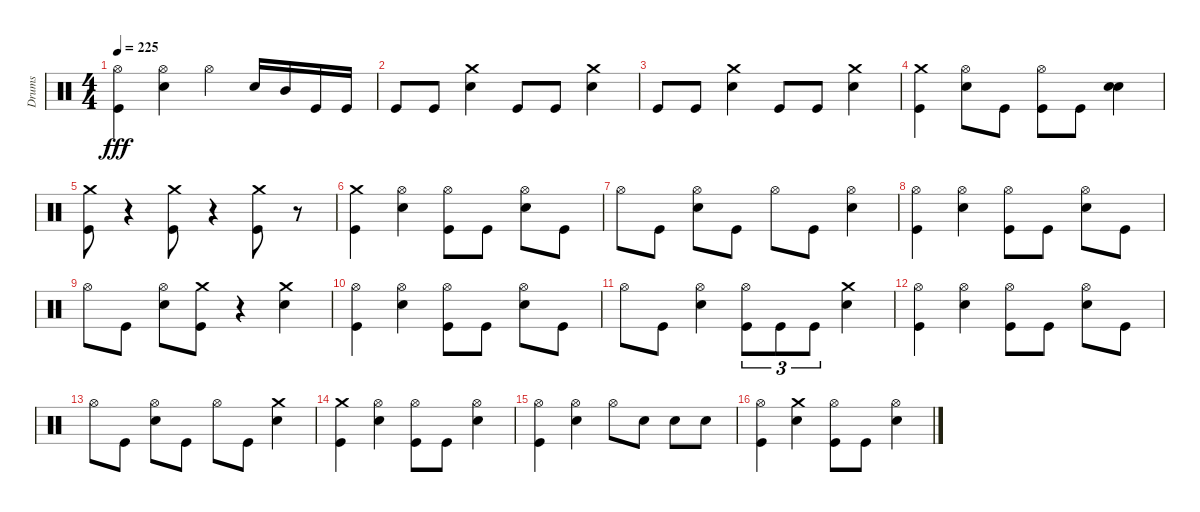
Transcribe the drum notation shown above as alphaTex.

\track ("Drums" "Drums") {instrument percussion}
\staff {score}
\articulation defaults
\ts (4 4)
\tempo 225
\clef neutral
\ks c
("Kick (hit)" "Hi-Hat (open)").4{dy fff} ("Snare (hit) 2" "Hi-Hat (open)").4 "Hi-Hat (open)".4 "Snare (hit) 2".16 "Mid Tom (hit)".16 "Kick (hit)".16 "Kick (hit)".16 |
"Kick (hit)".8 "Kick (hit)".8 ("Snare (hit) 2" "Crash medium (hit)").4 "Kick (hit)".8 "Kick (hit)".8 ("Snare (hit) 2" "Crash medium (hit)").4 |
"Kick (hit)".8 "Kick (hit)".8 ("Crash medium (hit)" "Snare (hit) 2").4 "Kick (hit)".8 "Kick (hit)".8 ("Crash medium (hit)" "Snare (hit) 2").4 |
("Kick (hit)" "Crash medium (hit)").4 ("Snare (hit) 2" "Hi-Hat (open)").8 "Kick (hit)".8 ("Kick (hit)" "Hi-Hat (open)").8 "Kick (hit)".8 ("Snare (hit) 2" "Snare (hit) 2").4 |
("Crash medium (hit)" "Kick (hit)").8 r.4 ("Kick (hit)" "Crash medium (hit)").8 r.4 ("Crash medium (hit)" "Kick (hit)").8 r.8 |
("Kick (hit)" "Crash medium (hit)").4 ("Snare (hit) 2" "Hi-Hat (open)").4 ("Kick (hit)" "Hi-Hat (open)").8 "Kick (hit)".8 ("Snare (hit) 2" "Hi-Hat (open)").8 "Kick (hit)".8 |
"Hi-Hat (open)".8 "Kick (hit)".8 ("Snare (hit) 2" "Hi-Hat (open)").8 "Kick (hit)".8 "Hi-Hat (open)".8 "Kick (hit)".8 ("Snare (hit) 2" "Hi-Hat (open)").4 |
("Kick (hit)" "Hi-Hat (open)").4 ("Snare (hit) 2" "Hi-Hat (open)").4 ("Kick (hit)" "Hi-Hat (open)").8 "Kick (hit)".8 ("Snare (hit) 2" "Hi-Hat (open)").8 "Kick (hit)".8 |
"Hi-Hat (open)".8 "Kick (hit)".8 ("Snare (hit) 2" "Hi-Hat (open)").8 ("Crash medium (hit)" "Kick (hit)").8 r.4 ("Snare (hit) 2" "Crash medium (hit)").4 |
("Kick (hit)" "Hi-Hat (open)").4 ("Snare (hit) 2" "Hi-Hat (open)").4 ("Kick (hit)" "Hi-Hat (open)").8 "Kick (hit)".8 ("Snare (hit) 2" "Hi-Hat (open)").8 "Kick (hit)".8 |
"Hi-Hat (open)".8 "Kick (hit)".8 ("Snare (hit) 2" "Hi-Hat (open)").4 ("Kick (hit)" "Hi-Hat (open)").8{tu (3 2)} "Kick (hit)".8{tu (3 2)} "Kick (hit)".8{tu (3 2)} ("Crash medium (hit)" "Snare (hit) 2").4 |
("Kick (hit)" "Hi-Hat (open)").4 ("Snare (hit) 2" "Hi-Hat (open)").4 ("Kick (hit)" "Hi-Hat (open)").8 "Kick (hit)".8 ("Snare (hit) 2" "Hi-Hat (open)").8 "Kick (hit)".8 |
"Hi-Hat (open)".8 "Kick (hit)".8 ("Snare (hit) 2" "Hi-Hat (open)").8 "Kick (hit)".8 "Hi-Hat (open)".8 "Kick (hit)".8 ("Snare (hit) 2" "Crash medium (hit)").4 |
("Kick (hit)" "Crash medium (hit)").4 ("Snare (hit) 2" "Hi-Hat (open)").4 ("Kick (hit)" "Hi-Hat (open)").8 "Kick (hit)".8 ("Snare (hit) 2" "Hi-Hat (open)").4 |
("Kick (hit)" "Hi-Hat (open)").4 ("Snare (hit) 2" "Hi-Hat (open)").4 "Hi-Hat (open)".8 "Snare (hit) 2".8 "Snare (hit) 2".8 "Snare (hit) 2".8 |
("Kick (hit)" "Hi-Hat (open)").4 ("Snare (hit) 2" "Crash medium (hit)").4 ("Kick (hit)" "Hi-Hat (open)").8 "Kick (hit)".8 ("Snare (hit) 2" "Hi-Hat (open)").4
